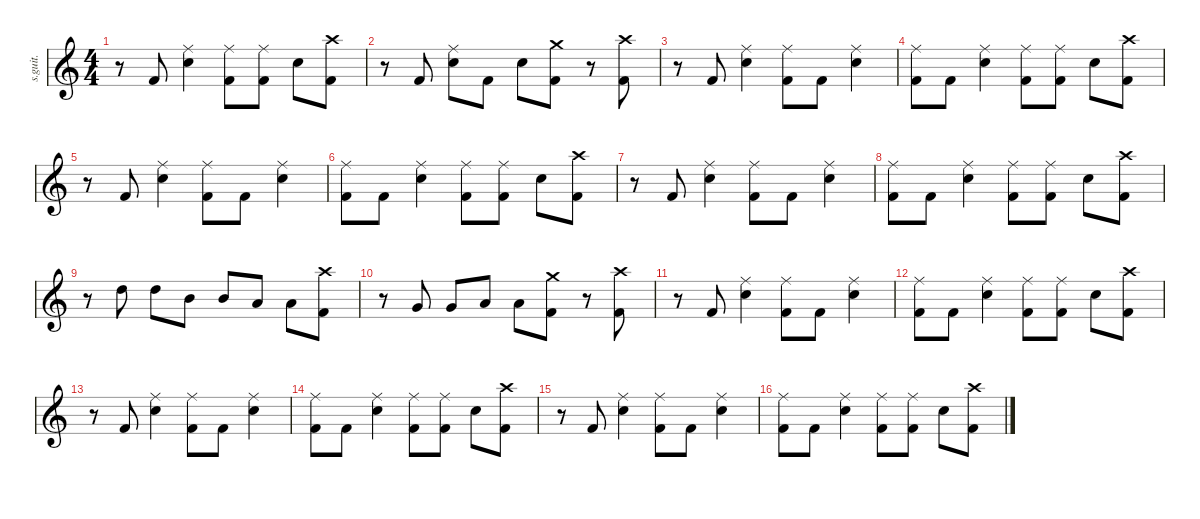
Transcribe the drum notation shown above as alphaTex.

\defaultSystemsLayout 4
\hideDynamics
\bracketExtendMode nobrackets
\track ("Nick Menza (Drums)" "s.guit.") {instrument percussion}
\staff {score}
\articulation defaults
\ts (4 4)
\tempo (196 hide)
\clef g2
\ks c
r.8{dy f} "Kick (hit) 2".8{lyrics (0 "") lyrics (1 "") lyrics (2 "") lyrics (3 "") lyrics (4 "") dy fff} ("Ride (middle)" "Snare (hit) 2").4{lyrics (0 "") lyrics (1 "") lyrics (2 "") lyrics (3 "") lyrics (4 "") dy f} ("Ride (middle)" "Kick (hit) 2").8{lyrics (0 "") lyrics (1 "") lyrics (2 "") lyrics (3 "") lyrics (4 "")} ("Ride (middle)" "Kick (hit) 2").8{lyrics (0 "") lyrics (1 "") lyrics (2 "") lyrics (3 "") lyrics (4 "")} "Snare (hit) 2".8{lyrics (0 "") lyrics (1 "") lyrics (2 "") lyrics (3 "") lyrics (4 "")} ("Crash high (hit)" "Kick (hit) 2").8{lyrics (0 "") lyrics (1 "") lyrics (2 "") lyrics (3 "") lyrics (4 "")} |
r.8 "Kick (hit) 2".8{lyrics (0 "") lyrics (1 "") lyrics (2 "") lyrics (3 "") lyrics (4 "") dy fff} ("Ride (middle)" "Snare (hit) 2").8{lyrics (0 "") lyrics (1 "") lyrics (2 "") lyrics (3 "") lyrics (4 "") dy f} "Kick (hit) 2".8{lyrics (0 "") lyrics (1 "") lyrics (2 "") lyrics (3 "") lyrics (4 "") dy fff} "Snare (hit) 2".8{lyrics (0 "") lyrics (1 "") lyrics (2 "") lyrics (3 "") lyrics (4 "") dy f} ("Crash medium (hit)" "Kick (hit) 2").8{lyrics (0 "") lyrics (1 "") lyrics (2 "") lyrics (3 "") lyrics (4 "")} r.8 ("Crash high (hit)" "Kick (hit) 2").8{lyrics (0 "") lyrics (1 "") lyrics (2 "") lyrics (3 "") lyrics (4 "")} |
r.8 "Kick (hit) 2".8{lyrics (0 "") lyrics (1 "") lyrics (2 "") lyrics (3 "") lyrics (4 "") dy fff} ("Ride (middle)" "Snare (hit) 2").4{lyrics (0 "") lyrics (1 "") lyrics (2 "") lyrics (3 "") lyrics (4 "") dy f} ("Ride (middle)" "Kick (hit) 2").8{lyrics (0 "") lyrics (1 "") lyrics (2 "") lyrics (3 "") lyrics (4 "")} "Kick (hit) 2".8{lyrics (0 "") lyrics (1 "") lyrics (2 "") lyrics (3 "") lyrics (4 "") dy fff} ("Ride (middle)" "Snare (hit) 2").4{lyrics (0 "") lyrics (1 "") lyrics (2 "") lyrics (3 "") lyrics (4 "") dy f} |
("Ride (middle)" "Kick (hit) 2").8{lyrics (0 "") lyrics (1 "") lyrics (2 "") lyrics (3 "") lyrics (4 "")} "Kick (hit) 2".8{lyrics (0 "") lyrics (1 "") lyrics (2 "") lyrics (3 "") lyrics (4 "") dy fff} ("Ride (middle)" "Snare (hit) 2").4{lyrics (0 "") lyrics (1 "") lyrics (2 "") lyrics (3 "") lyrics (4 "") dy f} ("Ride (middle)" "Kick (hit) 2").8{lyrics (0 "") lyrics (1 "") lyrics (2 "") lyrics (3 "") lyrics (4 "")} ("Ride (middle)" "Kick (hit) 2").8{lyrics (0 "") lyrics (1 "") lyrics (2 "") lyrics (3 "") lyrics (4 "")} "Snare (hit) 2".8{lyrics (0 "") lyrics (1 "") lyrics (2 "") lyrics (3 "") lyrics (4 "")} ("Crash high (hit)" "Kick (hit) 2").8{lyrics (0 "") lyrics (1 "") lyrics (2 "") lyrics (3 "") lyrics (4 "")} |
r.8 "Kick (hit) 2".8{lyrics (0 "") lyrics (1 "") lyrics (2 "") lyrics (3 "") lyrics (4 "") dy fff} ("Ride (middle)" "Snare (hit) 2").4{lyrics (0 "") lyrics (1 "") lyrics (2 "") lyrics (3 "") lyrics (4 "") dy f} ("Ride (middle)" "Kick (hit) 2").8{lyrics (0 "") lyrics (1 "") lyrics (2 "") lyrics (3 "") lyrics (4 "")} "Kick (hit) 2".8{lyrics (0 "") lyrics (1 "") lyrics (2 "") lyrics (3 "") lyrics (4 "") dy fff} ("Ride (middle)" "Snare (hit) 2").4{lyrics (0 "") lyrics (1 "") lyrics (2 "") lyrics (3 "") lyrics (4 "") dy f} |
("Ride (middle)" "Kick (hit) 2").8{lyrics (0 "") lyrics (1 "") lyrics (2 "") lyrics (3 "") lyrics (4 "")} "Kick (hit) 2".8{lyrics (0 "") lyrics (1 "") lyrics (2 "") lyrics (3 "") lyrics (4 "") dy fff} ("Ride (middle)" "Snare (hit) 2").4{lyrics (0 "") lyrics (1 "") lyrics (2 "") lyrics (3 "") lyrics (4 "") dy f} ("Ride (middle)" "Kick (hit) 2").8{lyrics (0 "") lyrics (1 "") lyrics (2 "") lyrics (3 "") lyrics (4 "")} ("Ride (middle)" "Kick (hit) 2").8{lyrics (0 "") lyrics (1 "") lyrics (2 "") lyrics (3 "") lyrics (4 "")} "Snare (hit) 2".8{lyrics (0 "") lyrics (1 "") lyrics (2 "") lyrics (3 "") lyrics (4 "")} ("Crash high (hit)" "Kick (hit) 2").8{lyrics (0 "") lyrics (1 "") lyrics (2 "") lyrics (3 "") lyrics (4 "")} |
r.8 "Kick (hit) 2".8{lyrics (0 "") lyrics (1 "") lyrics (2 "") lyrics (3 "") lyrics (4 "") dy fff} ("Ride (middle)" "Snare (hit) 2").4{lyrics (0 "") lyrics (1 "") lyrics (2 "") lyrics (3 "") lyrics (4 "") dy f} ("Ride (middle)" "Kick (hit) 2").8{lyrics (0 "") lyrics (1 "") lyrics (2 "") lyrics (3 "") lyrics (4 "")} "Kick (hit) 2".8{lyrics (0 "") lyrics (1 "") lyrics (2 "") lyrics (3 "") lyrics (4 "") dy fff} ("Ride (middle)" "Snare (hit) 2").4{lyrics (0 "") lyrics (1 "") lyrics (2 "") lyrics (3 "") lyrics (4 "") dy f} |
("Ride (middle)" "Kick (hit) 2").8{lyrics (0 "") lyrics (1 "") lyrics (2 "") lyrics (3 "") lyrics (4 "")} "Kick (hit) 2".8{lyrics (0 "") lyrics (1 "") lyrics (2 "") lyrics (3 "") lyrics (4 "") dy fff} ("Ride (middle)" "Snare (hit) 2").4{lyrics (0 "") lyrics (1 "") lyrics (2 "") lyrics (3 "") lyrics (4 "") dy f} ("Ride (middle)" "Kick (hit) 2").8{lyrics (0 "") lyrics (1 "") lyrics (2 "") lyrics (3 "") lyrics (4 "")} ("Ride (middle)" "Kick (hit) 2").8{lyrics (0 "") lyrics (1 "") lyrics (2 "") lyrics (3 "") lyrics (4 "")} "Snare (hit) 2".8{lyrics (0 "") lyrics (1 "") lyrics (2 "") lyrics (3 "") lyrics (4 "")} ("Crash high (hit)" "Kick (hit) 2").8{lyrics (0 "") lyrics (1 "") lyrics (2 "") lyrics (3 "") lyrics (4 "")} |
r.8 "High Tom (hit)".8{lyrics (0 "") lyrics (1 "") lyrics (2 "") lyrics (3 "") lyrics (4 "") dy fff} "High Tom (hit)".8{lyrics (0 "") lyrics (1 "") lyrics (2 "") lyrics (3 "") lyrics (4 "")} "Mid Tom (hit)".8{lyrics (0 "") lyrics (1 "") lyrics (2 "") lyrics (3 "") lyrics (4 "")} "Mid Tom (hit)".8{lyrics (0 "") lyrics (1 "") lyrics (2 "") lyrics (3 "") lyrics (4 "")} "Low Tom (hit)".8{lyrics (0 "") lyrics (1 "") lyrics (2 "") lyrics (3 "") lyrics (4 "")} "Low Tom (hit)".8{lyrics (0 "") lyrics (1 "") lyrics (2 "") lyrics (3 "") lyrics (4 "")} ("Crash high (hit)" "Kick (hit) 2").8{lyrics (0 "") lyrics (1 "") lyrics (2 "") lyrics (3 "") lyrics (4 "") dy f} |
r.8 "Very Low Tom (hit)".8{lyrics (0 "") lyrics (1 "") lyrics (2 "") lyrics (3 "") lyrics (4 "")} "Very Low Tom (hit)".8{lyrics (0 "") lyrics (1 "") lyrics (2 "") lyrics (3 "") lyrics (4 "")} "Low Floor Tom (hit)".8{lyrics (0 "") lyrics (1 "") lyrics (2 "") lyrics (3 "") lyrics (4 "")} "Low Floor Tom (hit)".8{lyrics (0 "") lyrics (1 "") lyrics (2 "") lyrics (3 "") lyrics (4 "")} ("Crash medium (hit)" "Kick (hit) 2").8{lyrics (0 "") lyrics (1 "") lyrics (2 "") lyrics (3 "") lyrics (4 "")} r.8 ("Crash high (hit)" "Kick (hit) 2").8{lyrics (0 "") lyrics (1 "") lyrics (2 "") lyrics (3 "") lyrics (4 "")} |
r.8 "Kick (hit) 2".8{lyrics (0 "") lyrics (1 "") lyrics (2 "") lyrics (3 "") lyrics (4 "")} ("Ride (middle)" "Snare (hit) 2").4{lyrics (0 "") lyrics (1 "") lyrics (2 "") lyrics (3 "") lyrics (4 "")} ("Ride (middle)" "Kick (hit) 2").8{lyrics (0 "") lyrics (1 "") lyrics (2 "") lyrics (3 "") lyrics (4 "")} "Kick (hit) 2".8{lyrics (0 "") lyrics (1 "") lyrics (2 "") lyrics (3 "") lyrics (4 "")} ("Ride (middle)" "Snare (hit) 2").4{lyrics (0 "") lyrics (1 "") lyrics (2 "") lyrics (3 "") lyrics (4 "")} |
("Ride (middle)" "Kick (hit) 2").8{lyrics (0 "") lyrics (1 "") lyrics (2 "") lyrics (3 "") lyrics (4 "")} "Kick (hit) 2".8{lyrics (0 "") lyrics (1 "") lyrics (2 "") lyrics (3 "") lyrics (4 "")} ("Ride (middle)" "Snare (hit) 2").4{lyrics (0 "") lyrics (1 "") lyrics (2 "") lyrics (3 "") lyrics (4 "")} ("Ride (middle)" "Kick (hit) 2").8{lyrics (0 "") lyrics (1 "") lyrics (2 "") lyrics (3 "") lyrics (4 "")} ("Ride (middle)" "Kick (hit) 2").8{lyrics (0 "") lyrics (1 "") lyrics (2 "") lyrics (3 "") lyrics (4 "")} "Snare (hit) 2".8{lyrics (0 "") lyrics (1 "") lyrics (2 "") lyrics (3 "") lyrics (4 "")} ("Crash high (hit)" "Kick (hit) 2").8{lyrics (0 "") lyrics (1 "") lyrics (2 "") lyrics (3 "") lyrics (4 "")} |
r.8 "Kick (hit) 2".8{lyrics (0 "") lyrics (1 "") lyrics (2 "") lyrics (3 "") lyrics (4 "")} ("Ride (middle)" "Snare (hit) 2").4{lyrics (0 "") lyrics (1 "") lyrics (2 "") lyrics (3 "") lyrics (4 "")} ("Ride (middle)" "Kick (hit) 2").8{lyrics (0 "") lyrics (1 "") lyrics (2 "") lyrics (3 "") lyrics (4 "")} "Kick (hit) 2".8{lyrics (0 "") lyrics (1 "") lyrics (2 "") lyrics (3 "") lyrics (4 "")} ("Ride (middle)" "Snare (hit) 2").4{lyrics (0 "") lyrics (1 "") lyrics (2 "") lyrics (3 "") lyrics (4 "")} |
("Ride (middle)" "Kick (hit) 2").8{lyrics (0 "") lyrics (1 "") lyrics (2 "") lyrics (3 "") lyrics (4 "")} "Kick (hit) 2".8{lyrics (0 "") lyrics (1 "") lyrics (2 "") lyrics (3 "") lyrics (4 "")} ("Ride (middle)" "Snare (hit) 2").4{lyrics (0 "") lyrics (1 "") lyrics (2 "") lyrics (3 "") lyrics (4 "")} ("Ride (middle)" "Kick (hit) 2").8{lyrics (0 "") lyrics (1 "") lyrics (2 "") lyrics (3 "") lyrics (4 "")} ("Ride (middle)" "Kick (hit) 2").8{lyrics (0 "") lyrics (1 "") lyrics (2 "") lyrics (3 "") lyrics (4 "")} "Snare (hit) 2".8{lyrics (0 "") lyrics (1 "") lyrics (2 "") lyrics (3 "") lyrics (4 "")} ("Crash high (hit)" "Kick (hit) 2").8{lyrics (0 "") lyrics (1 "") lyrics (2 "") lyrics (3 "") lyrics (4 "")} |
r.8 "Kick (hit) 2".8{lyrics (0 "") lyrics (1 "") lyrics (2 "") lyrics (3 "") lyrics (4 "")} ("Ride (middle)" "Snare (hit) 2").4{lyrics (0 "") lyrics (1 "") lyrics (2 "") lyrics (3 "") lyrics (4 "")} ("Ride (middle)" "Kick (hit) 2").8{lyrics (0 "") lyrics (1 "") lyrics (2 "") lyrics (3 "") lyrics (4 "")} "Kick (hit) 2".8{lyrics (0 "") lyrics (1 "") lyrics (2 "") lyrics (3 "") lyrics (4 "")} ("Ride (middle)" "Snare (hit) 2").4{lyrics (0 "") lyrics (1 "") lyrics (2 "") lyrics (3 "") lyrics (4 "")} |
("Ride (middle)" "Kick (hit) 2").8{lyrics (0 "") lyrics (1 "") lyrics (2 "") lyrics (3 "") lyrics (4 "")} "Kick (hit) 2".8{lyrics (0 "") lyrics (1 "") lyrics (2 "") lyrics (3 "") lyrics (4 "")} ("Ride (middle)" "Snare (hit) 2").4{lyrics (0 "") lyrics (1 "") lyrics (2 "") lyrics (3 "") lyrics (4 "")} ("Ride (middle)" "Kick (hit) 2").8{lyrics (0 "") lyrics (1 "") lyrics (2 "") lyrics (3 "") lyrics (4 "")} ("Ride (middle)" "Kick (hit) 2").8{lyrics (0 "") lyrics (1 "") lyrics (2 "") lyrics (3 "") lyrics (4 "")} "Snare (hit) 2".8{lyrics (0 "") lyrics (1 "") lyrics (2 "") lyrics (3 "") lyrics (4 "")} ("Crash high (hit)" "Kick (hit) 2").8{lyrics (0 "") lyrics (1 "") lyrics (2 "") lyrics (3 "") lyrics (4 "")}
